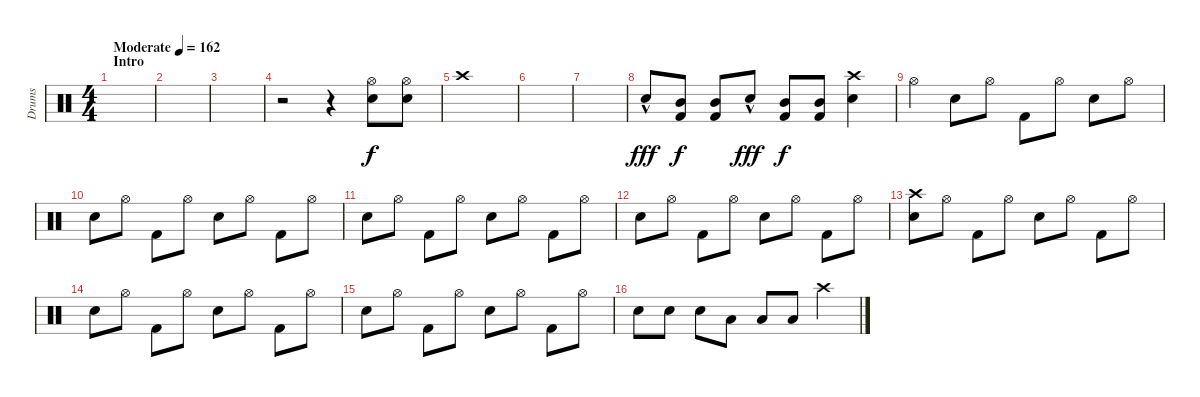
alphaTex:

\track ("Drums" "Drums") {instrument percussion}
\staff {score}
\articulation defaults
\ts (4 4)
\section ("" "Intro")
\tempo (162 "Moderate")
\clef neutral
\ks c
|
|
|
r.2 r.4 ("Hi-Hat (open)" "Electric Snare (hit)").8 ("Hi-Hat (open)" "Electric Snare (hit)").8 |
"Crash high (hit)".1 |
|
|
"Electric Snare (hit)"{hac}.8{dy fff} ("Mid Tom (hit)" "Kick (hit) 2").8{dy f} ("Mid Tom (hit)" "Kick (hit) 2").8 "Electric Snare (hit)"{hac}.8{dy fff} ("Mid Tom (hit)" "Kick (hit) 2").8{dy f} ("Mid Tom (hit)" "Kick (hit) 2").8 ("Crash high (hit)" "Electric Snare (hit)").4 |
"Hi-Hat (open)".4 "Electric Snare (hit)".8 "Hi-Hat (open)".8 "Kick (hit) 2".8 "Hi-Hat (open)".8 "Electric Snare (hit)".8 "Hi-Hat (open)".8 |
"Electric Snare (hit)".8 "Hi-Hat (open)".8 "Kick (hit) 2".8 "Hi-Hat (open)".8 "Electric Snare (hit)".8 "Hi-Hat (open)".8 "Kick (hit) 2".8 "Hi-Hat (open)".8 |
"Electric Snare (hit)".8 "Hi-Hat (open)".8 "Kick (hit) 2".8 "Hi-Hat (open)".8 "Electric Snare (hit)".8 "Hi-Hat (open)".8 "Kick (hit) 2".8 "Hi-Hat (open)".8 |
"Electric Snare (hit)".8 "Hi-Hat (open)".8 "Kick (hit) 2".8 "Hi-Hat (open)".8 "Electric Snare (hit)".8 "Hi-Hat (open)".8 "Kick (hit) 2".8 "Hi-Hat (open)".8 |
("Crash high (hit)" "Electric Snare (hit)").8 "Hi-Hat (open)".8 "Kick (hit) 2".8 "Hi-Hat (open)".8 "Electric Snare (hit)".8 "Hi-Hat (open)".8 "Kick (hit) 2".8 "Hi-Hat (open)".8 |
"Electric Snare (hit)".8 "Hi-Hat (open)".8 "Kick (hit) 2".8 "Hi-Hat (open)".8 "Electric Snare (hit)".8 "Hi-Hat (open)".8 "Kick (hit) 2".8 "Hi-Hat (open)".8 |
"Electric Snare (hit)".8 "Hi-Hat (open)".8 "Kick (hit) 2".8 "Hi-Hat (open)".8 "Electric Snare (hit)".8 "Hi-Hat (open)".8 "Kick (hit) 2".8 "Hi-Hat (open)".8 |
"Electric Snare (hit)".8 "Electric Snare (hit)".8 "Electric Snare (hit)".8 "Low Tom (hit)".8 "Low Tom (hit)".8 "Low Tom (hit)".8 "Crash high (hit)".4
